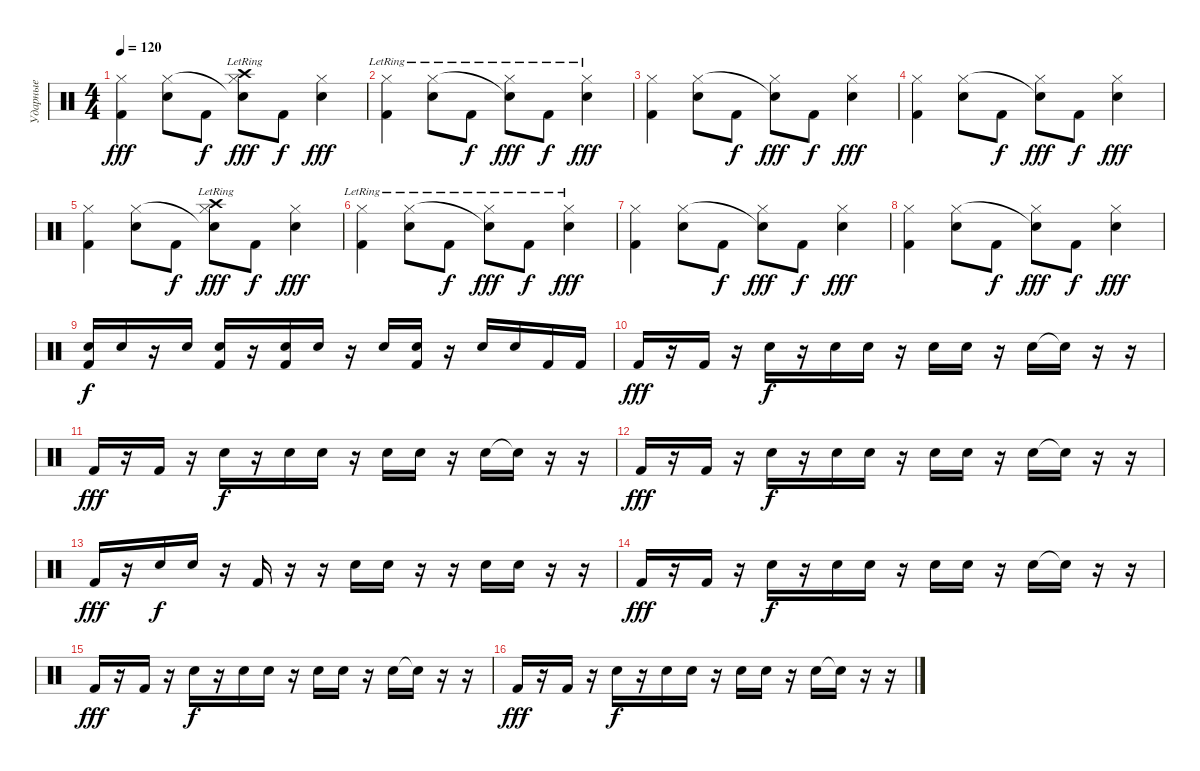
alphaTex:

\track ("Ударные" "Ударные") {instrument percussion}
\staff {score}
\articulation defaults
\ts (4 4)
\tempo 120
\clef neutral
\ks c
("Hi-Hat (closed)" "Kick (hit) 2").4{dy fff} ("Snare (hit) 2" "Hi-Hat (closed)").8 "Kick (hit) 2".8{dy f} ("Hi-Hat (closed)" "Snare (hit)"{t} "Crash high (hit)"{lr}).8{dy fff} "Kick (hit) 2".8{dy f} ("Snare (hit) 2" "Hi-Hat (closed)").4{dy fff} |
("Hi-Hat (closed)" "Kick (hit) 2"{lr}).4 ("Snare (hit) 2"{lr} "Hi-Hat (closed)").8 "Kick (hit) 2"{lr}.8{dy f} ("Hi-Hat (closed)"{lr} "Snare (hit)"{t}).8{dy fff} "Kick (hit) 2"{lr}.8{dy f} ("Snare (hit) 2"{lr} "Hi-Hat (closed)"{lr}).4{dy fff} |
("Hi-Hat (closed)" "Kick (hit) 2").4 ("Snare (hit) 2" "Hi-Hat (closed)").8 "Kick (hit) 2".8{dy f} ("Hi-Hat (closed)" "Snare (hit)"{t}).8{dy fff} "Kick (hit) 2".8{dy f} ("Snare (hit) 2" "Hi-Hat (closed)").4{dy fff} |
("Hi-Hat (closed)" "Kick (hit) 2").4 ("Snare (hit) 2" "Hi-Hat (closed)").8 "Kick (hit) 2".8{dy f} ("Hi-Hat (closed)" "Snare (hit)"{t}).8{dy fff} "Kick (hit) 2".8{dy f} ("Snare (hit) 2" "Hi-Hat (closed)").4{dy fff} |
("Hi-Hat (closed)" "Kick (hit) 2").4 ("Snare (hit) 2" "Hi-Hat (closed)").8 "Kick (hit) 2".8{dy f} ("Hi-Hat (closed)" "Snare (hit)"{t} "Crash high (hit)"{lr}).8{dy fff} "Kick (hit) 2".8{dy f} ("Snare (hit) 2" "Hi-Hat (closed)").4{dy fff} |
("Hi-Hat (closed)" "Kick (hit) 2"{lr}).4 ("Snare (hit) 2"{lr} "Hi-Hat (closed)").8 "Kick (hit) 2"{lr}.8{dy f} ("Hi-Hat (closed)"{lr} "Snare (hit)"{t}).8{dy fff} "Kick (hit) 2"{lr}.8{dy f} ("Snare (hit) 2"{lr} "Hi-Hat (closed)"{lr}).4{dy fff} |
("Hi-Hat (closed)" "Kick (hit) 2").4 ("Snare (hit) 2" "Hi-Hat (closed)").8 "Kick (hit) 2".8{dy f} ("Hi-Hat (closed)" "Snare (hit)"{t}).8{dy fff} "Kick (hit) 2".8{dy f} ("Snare (hit) 2" "Hi-Hat (closed)").4{dy fff} |
("Hi-Hat (closed)" "Kick (hit) 2").4 ("Snare (hit) 2" "Hi-Hat (closed)").8 "Kick (hit) 2".8{dy f} ("Hi-Hat (closed)" "Snare (hit)"{t}).8{dy fff} "Kick (hit) 2".8{dy f} ("Snare (hit) 2" "Hi-Hat (closed)").4{dy fff} |
("Snare (hit) 2" "Kick (hit) 2").16{dy f} "Snare (hit) 2".16 r.16 "Snare (hit) 2".16 ("Snare (hit) 2" "Kick (hit) 2").16 r.16 ("Snare (hit) 2" "Kick (hit) 2").16 "Snare (hit) 2".16 r.16 "Snare (hit) 2".16 ("Snare (hit) 2" "Kick (hit) 2").16 r.16 "Snare (hit) 2".16 "Snare (hit) 2".16 "Kick (hit) 2".16 "Kick (hit) 2".16 |
"Kick (hit) 2".16{dy fff} r.16 "Kick (hit) 2".16 r.16 "Snare (hit) 2".16{dy f} r.16 "Electric Snare (hit)".16 "Snare (hit) 2".16 r.16 "Electric Snare (hit)".16 "Snare (hit) 2".16 r.16 "Snare (hit) 2".16 "Snare (hit) 2"{t}.16 r.16 r.16 |
"Kick (hit) 2".16{dy fff} r.16 "Kick (hit) 2".16 r.16 "Snare (hit) 2".16{dy f} r.16 "Electric Snare (hit)".16 "Snare (hit) 2".16 r.16 "Electric Snare (hit)".16 "Snare (hit) 2".16 r.16 "Snare (hit) 2".16 "Snare (hit) 2"{t}.16 r.16 r.16 |
"Kick (hit) 2".16{dy fff} r.16 "Kick (hit) 2".16 r.16 "Snare (hit) 2".16{dy f} r.16 "Electric Snare (hit)".16 "Snare (hit) 2".16 r.16 "Electric Snare (hit)".16 "Snare (hit) 2".16 r.16 "Snare (hit) 2".16 "Snare (hit) 2"{t}.16 r.16 r.16 |
"Kick (hit) 2".16{dy fff} r.16 "Electric Snare (hit)".16{dy f} "Snare (hit) 2".16 r.16 "Kick (hit) 2".16 r.16 r.16 "Electric Snare (hit)".16 "Snare (hit) 2".16 r.16 r.16 "Electric Snare (hit)".16 "Snare (hit) 2".16 r.16 r.16 |
"Kick (hit) 2".16{dy fff} r.16 "Kick (hit) 2".16 r.16 "Snare (hit) 2".16{dy f} r.16 "Electric Snare (hit)".16 "Snare (hit) 2".16 r.16 "Electric Snare (hit)".16 "Snare (hit) 2".16 r.16 "Snare (hit) 2".16 "Snare (hit) 2"{t}.16 r.16 r.16 |
"Kick (hit) 2".16{dy fff} r.16 "Kick (hit) 2".16 r.16 "Snare (hit) 2".16{dy f} r.16 "Electric Snare (hit)".16 "Snare (hit) 2".16 r.16 "Electric Snare (hit)".16 "Snare (hit) 2".16 r.16 "Snare (hit) 2".16 "Snare (hit) 2"{t}.16 r.16 r.16 |
"Kick (hit) 2".16{dy fff} r.16 "Kick (hit) 2".16 r.16 "Snare (hit) 2".16{dy f} r.16 "Electric Snare (hit)".16 "Snare (hit) 2".16 r.16 "Electric Snare (hit)".16 "Snare (hit) 2".16 r.16 "Snare (hit) 2".16 "Snare (hit) 2"{t}.16 r.16 r.16
